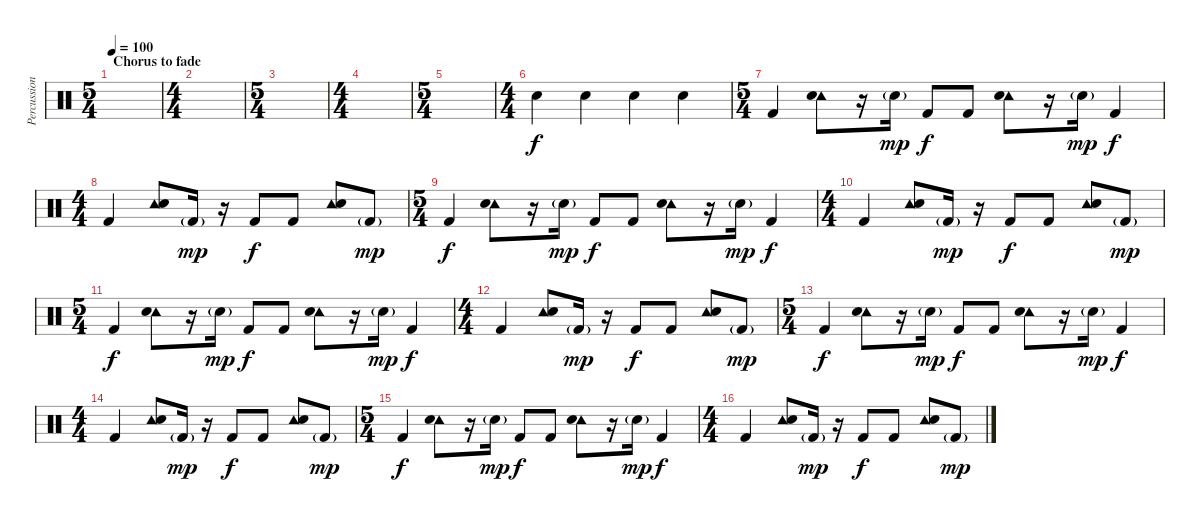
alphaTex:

\track ("Percussion" "Percussion") {instrument percussion}
\staff {score}
\articulation defaults
\ts (5 4)
\section ("" "Chorus to fade")
\tempo 100
\clef neutral
\ks c
|
\ts (4 4)
|
\ts (5 4)
|
\ts (4 4)
|
\ts (5 4)
|
\ts (4 4)
"Snare (hit) 2".4{dy f} "Snare (hit) 2".4 "Snare (hit) 2".4 "Snare (hit) 2".4 |
\ts (5 4)
"Kick (hit) 2".4{volume 5} ("Tambourine (hit)" "Snare (hit) 2").8 r.16 "Snare (hit) 2"{g}.16{dy mp} "Kick (hit) 2".8{dy f} "Kick (hit) 2".8 ("Tambourine (hit)" "Snare (hit) 2").8 r.16 "Snare (hit) 2"{g}.16{dy mp} "Kick (hit) 2".4{dy f} |
\ts (4 4)
"Kick (hit) 2".4 ("Tambourine (hit)" "Snare (hit) 2").8 "Kick (hit) 2"{g}.16{dy mp} r.16 "Kick (hit) 2".8{dy f} "Kick (hit) 2".8 ("Tambourine (hit)" "Snare (hit) 2").8 "Kick (hit) 2"{g}.8{dy mp} |
\ts (5 4)
"Kick (hit) 2".4{dy f} ("Tambourine (hit)" "Snare (hit) 2").8 r.16 "Snare (hit) 2"{g}.16{dy mp} "Kick (hit) 2".8{dy f} "Kick (hit) 2".8 ("Tambourine (hit)" "Snare (hit) 2").8 r.16 "Snare (hit) 2"{g}.16{dy mp} "Kick (hit) 2".4{dy f} |
\ts (4 4)
"Kick (hit) 2".4 ("Tambourine (hit)" "Snare (hit) 2").8 "Kick (hit) 2"{g}.16{dy mp} r.16 "Kick (hit) 2".8{dy f} "Kick (hit) 2".8 ("Tambourine (hit)" "Snare (hit) 2").8 "Kick (hit) 2"{g}.8{dy mp} |
\ts (5 4)
"Kick (hit) 2".4{dy f} ("Tambourine (hit)" "Snare (hit) 2").8 r.16 "Snare (hit) 2"{g}.16{dy mp} "Kick (hit) 2".8{dy f} "Kick (hit) 2".8 ("Tambourine (hit)" "Snare (hit) 2").8 r.16 "Snare (hit) 2"{g}.16{dy mp} "Kick (hit) 2".4{dy f} |
\ts (4 4)
"Kick (hit) 2".4 ("Tambourine (hit)" "Snare (hit) 2").8 "Kick (hit) 2"{g}.16{dy mp} r.16 "Kick (hit) 2".8{dy f} "Kick (hit) 2".8 ("Tambourine (hit)" "Snare (hit) 2").8 "Kick (hit) 2"{g}.8{dy mp} |
\ts (5 4)
"Kick (hit) 2".4{dy f volume 5} ("Tambourine (hit)" "Snare (hit) 2").8 r.16 "Snare (hit) 2"{g}.16{dy mp} "Kick (hit) 2".8{dy f} "Kick (hit) 2".8 ("Tambourine (hit)" "Snare (hit) 2").8 r.16 "Snare (hit) 2"{g}.16{dy mp} "Kick (hit) 2".4{dy f} |
\ts (4 4)
"Kick (hit) 2".4 ("Tambourine (hit)" "Snare (hit) 2").8 "Kick (hit) 2"{g}.16{dy mp} r.16 "Kick (hit) 2".8{dy f} "Kick (hit) 2".8 ("Tambourine (hit)" "Snare (hit) 2").8 "Kick (hit) 2"{g}.8{dy mp} |
\ts (5 4)
"Kick (hit) 2".4{dy f} ("Tambourine (hit)" "Snare (hit) 2").8 r.16 "Snare (hit) 2"{g}.16{dy mp} "Kick (hit) 2".8{dy f} "Kick (hit) 2".8 ("Tambourine (hit)" "Snare (hit) 2").8 r.16 "Snare (hit) 2"{g}.16{dy mp} "Kick (hit) 2".4{dy f} |
\ts (4 4)
"Kick (hit) 2".4 ("Tambourine (hit)" "Snare (hit) 2").8 "Kick (hit) 2"{g}.16{dy mp} r.16 "Kick (hit) 2".8{dy f} "Kick (hit) 2".8 ("Tambourine (hit)" "Snare (hit) 2").8 "Kick (hit) 2"{g}.8{dy mp}
